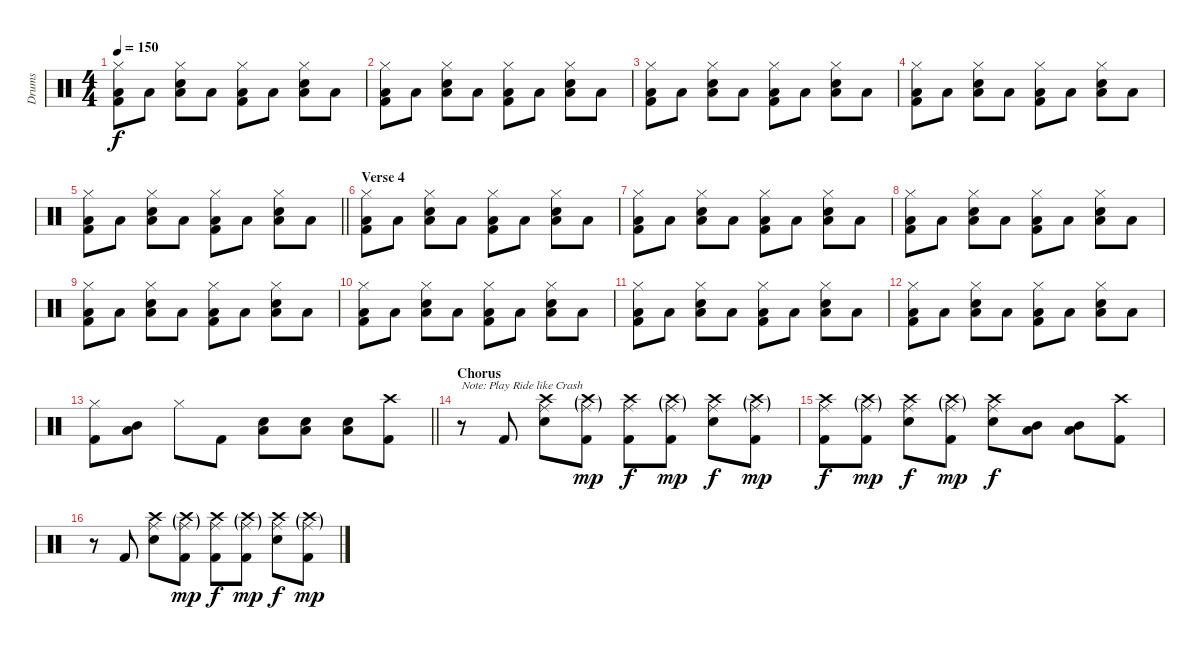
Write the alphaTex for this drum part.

\track ("Drums" "Drums") {instrument percussion}
\staff {score}
\articulation defaults
\ts (4 4)
\tempo 150
\clef neutral
\ks c
("Hi-Hat (closed)" "Low Tom (hit)" "Kick (hit) 2").8{dy f} "Low Tom (hit)".8 ("Hi-Hat (closed)" "Low Tom (hit)" "Electric Snare (hit)").8 "Low Tom (hit)".8 ("Hi-Hat (closed)" "Low Tom (hit)" "Kick (hit) 2").8 "Low Tom (hit)".8 ("Hi-Hat (closed)" "Low Tom (hit)" "Electric Snare (hit)").8 "Low Tom (hit)".8 |
("Hi-Hat (closed)" "Low Tom (hit)" "Kick (hit) 2").8 "Low Tom (hit)".8 ("Hi-Hat (closed)" "Low Tom (hit)" "Electric Snare (hit)").8 "Low Tom (hit)".8 ("Hi-Hat (closed)" "Low Tom (hit)" "Kick (hit) 2").8 "Low Tom (hit)".8 ("Hi-Hat (closed)" "Low Tom (hit)" "Electric Snare (hit)").8 "Low Tom (hit)".8 |
("Hi-Hat (closed)" "Low Tom (hit)" "Kick (hit) 2").8 "Low Tom (hit)".8 ("Hi-Hat (closed)" "Low Tom (hit)" "Electric Snare (hit)").8 "Low Tom (hit)".8 ("Hi-Hat (closed)" "Low Tom (hit)" "Kick (hit) 2").8 "Low Tom (hit)".8 ("Hi-Hat (closed)" "Low Tom (hit)" "Electric Snare (hit)").8 "Low Tom (hit)".8 |
("Hi-Hat (closed)" "Low Tom (hit)" "Kick (hit) 2").8 "Low Tom (hit)".8 ("Hi-Hat (closed)" "Low Tom (hit)" "Electric Snare (hit)").8 "Low Tom (hit)".8 ("Hi-Hat (closed)" "Low Tom (hit)" "Kick (hit) 2").8 "Low Tom (hit)".8 ("Hi-Hat (closed)" "Low Tom (hit)" "Electric Snare (hit)").8 "Low Tom (hit)".8 |
\barLineRight lightlight
("Hi-Hat (closed)" "Low Tom (hit)" "Kick (hit) 2").8 "Low Tom (hit)".8 ("Hi-Hat (closed)" "Low Tom (hit)" "Electric Snare (hit)").8 "Low Tom (hit)".8 ("Hi-Hat (closed)" "Low Tom (hit)" "Kick (hit) 2").8 "Low Tom (hit)".8 ("Hi-Hat (closed)" "Low Tom (hit)" "Electric Snare (hit)").8 "Low Tom (hit)".8 |
\section ("" "Verse 4")
("Hi-Hat (closed)" "Low Tom (hit)" "Kick (hit) 2").8 "Low Tom (hit)".8 ("Hi-Hat (closed)" "Low Tom (hit)" "Electric Snare (hit)").8 "Low Tom (hit)".8 ("Hi-Hat (closed)" "Low Tom (hit)" "Kick (hit) 2").8 "Low Tom (hit)".8 ("Hi-Hat (closed)" "Low Tom (hit)" "Electric Snare (hit)").8 "Low Tom (hit)".8 |
("Hi-Hat (closed)" "Low Tom (hit)" "Kick (hit) 2").8 "Low Tom (hit)".8 ("Hi-Hat (closed)" "Low Tom (hit)" "Electric Snare (hit)").8 "Low Tom (hit)".8 ("Hi-Hat (closed)" "Low Tom (hit)" "Kick (hit) 2").8 "Low Tom (hit)".8 ("Hi-Hat (closed)" "Low Tom (hit)" "Electric Snare (hit)").8 "Low Tom (hit)".8 |
("Hi-Hat (closed)" "Low Tom (hit)" "Kick (hit) 2").8 "Low Tom (hit)".8 ("Hi-Hat (closed)" "Low Tom (hit)" "Electric Snare (hit)").8 "Low Tom (hit)".8 ("Hi-Hat (closed)" "Low Tom (hit)" "Kick (hit) 2").8 "Low Tom (hit)".8 ("Hi-Hat (closed)" "Low Tom (hit)" "Electric Snare (hit)").8 "Low Tom (hit)".8 |
("Hi-Hat (closed)" "Low Tom (hit)" "Kick (hit) 2").8 "Low Tom (hit)".8 ("Hi-Hat (closed)" "Low Tom (hit)" "Electric Snare (hit)").8 "Low Tom (hit)".8 ("Hi-Hat (closed)" "Low Tom (hit)" "Kick (hit) 2").8 "Low Tom (hit)".8 ("Hi-Hat (closed)" "Low Tom (hit)" "Electric Snare (hit)").8 "Low Tom (hit)".8 |
("Hi-Hat (closed)" "Low Tom (hit)" "Kick (hit) 2").8 "Low Tom (hit)".8 ("Hi-Hat (closed)" "Low Tom (hit)" "Electric Snare (hit)").8 "Low Tom (hit)".8 ("Hi-Hat (closed)" "Low Tom (hit)" "Kick (hit) 2").8 "Low Tom (hit)".8 ("Hi-Hat (closed)" "Low Tom (hit)" "Electric Snare (hit)").8 "Low Tom (hit)".8 |
("Hi-Hat (closed)" "Low Tom (hit)" "Kick (hit) 2").8 "Low Tom (hit)".8 ("Hi-Hat (closed)" "Low Tom (hit)" "Electric Snare (hit)").8 "Low Tom (hit)".8 ("Hi-Hat (closed)" "Low Tom (hit)" "Kick (hit) 2").8 "Low Tom (hit)".8 ("Hi-Hat (closed)" "Low Tom (hit)" "Electric Snare (hit)").8 "Low Tom (hit)".8 |
("Hi-Hat (closed)" "Low Tom (hit)" "Kick (hit) 2").8 "Low Tom (hit)".8 ("Hi-Hat (closed)" "Low Tom (hit)" "Electric Snare (hit)").8 "Low Tom (hit)".8 ("Hi-Hat (closed)" "Low Tom (hit)" "Kick (hit) 2").8 "Low Tom (hit)".8 ("Hi-Hat (closed)" "Low Tom (hit)" "Electric Snare (hit)").8 "Low Tom (hit)".8 |
\barLineRight lightlight
("Hi-Hat (closed)" "Kick (hit) 2").8 ("Low Tom (hit)" "Mid Tom (hit)").8 "Hi-Hat (closed)".8 "Kick (hit) 2".8 ("Low Tom (hit)" "Electric Snare (hit)").8 ("Low Tom (hit)" "Electric Snare (hit)").8 ("Low Tom (hit)" "Electric Snare (hit)").8 ("Crash high (hit)" "Kick (hit) 2").8 |
\section ("" "Chorus")
r.8{txt "Note: Play Ride like Crash"} "Kick (hit) 2".8 ("Ride (middle)" "Crash high (hit)" "Electric Snare (hit)").8 ("Ride (middle)"{g} "Crash high (hit)"{g} "Kick (hit) 2").8{dy mp} ("Ride (middle)" "Crash high (hit)" "Kick (hit) 2").8{dy f} ("Ride (middle)"{g} "Crash high (hit)"{g} "Kick (hit) 2").8{dy mp} ("Ride (middle)" "Crash high (hit)" "Electric Snare (hit)").8{dy f} ("Ride (middle)"{g} "Crash high (hit)"{g} "Kick (hit) 2").8{dy mp} |
("Ride (middle)" "Crash high (hit)" "Kick (hit) 2").8{dy f} ("Ride (middle)"{g} "Crash high (hit)"{g} "Kick (hit) 2").8{dy mp} ("Ride (middle)" "Crash high (hit)" "Electric Snare (hit)").8{dy f} ("Ride (middle)"{g} "Crash high (hit)"{g} "Kick (hit) 2").8{dy mp} ("Ride (middle)" "Crash high (hit)" "Electric Snare (hit)").8{dy f} ("Low Tom (hit)" "Mid Tom (hit)").8 ("Low Tom (hit)" "Mid Tom (hit)").8 ("Crash high (hit)" "Kick (hit) 2").8 |
r.8 "Kick (hit) 2".8 ("Ride (middle)" "Crash high (hit)" "Electric Snare (hit)").8 ("Ride (middle)"{g} "Crash high (hit)"{g} "Kick (hit) 2").8{dy mp} ("Ride (middle)" "Crash high (hit)" "Kick (hit) 2").8{dy f} ("Ride (middle)"{g} "Crash high (hit)"{g} "Kick (hit) 2").8{dy mp} ("Ride (middle)" "Crash high (hit)" "Electric Snare (hit)").8{dy f} ("Ride (middle)"{g} "Crash high (hit)"{g} "Kick (hit) 2").8{dy mp}
